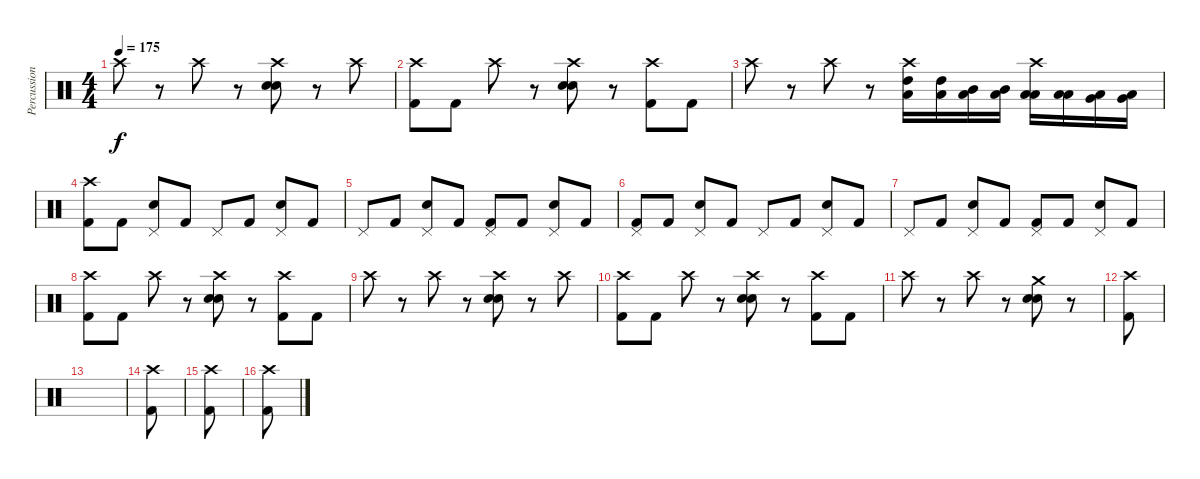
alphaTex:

\track ("Percussion" "Percussion") {instrument percussion}
\staff {score}
\articulation defaults
\ts (4 4)
\tempo 175
\clef neutral
\ks c "Crash high (hit)".8{dy f}
r.8 "Crash high (hit)".8 r.8 ("Crash high (hit)" "Electric Snare (hit)" "Electric Snare (hit)").8 r.8 "Crash high (hit)".8 |
("Crash high (hit)" "Kick (hit) 2").8 "Kick (hit) 2".8 "Crash high (hit)".8 r.8 ("Crash high (hit)" "Electric Snare (hit)" "Electric Snare (hit)").8 r.8 ("Crash high (hit)" "Kick (hit) 2").8 "Kick (hit) 2".8 |
"Crash high (hit)".8 r.8 "Crash high (hit)".8 r.8 ("Crash high (hit)" "Low Floor Tom (hit)" "High Tom (hit)").16 ("Low Floor Tom (hit)" "High Tom (hit)").16 ("Low Floor Tom (hit)" "Mid Tom (hit)").16 ("Low Floor Tom (hit)" "Mid Tom (hit)").16 ("Crash high (hit)" "Low Floor Tom (hit)" "Low Tom (hit)").16 ("Low Floor Tom (hit)" "Low Tom (hit)").16 ("Low Floor Tom (hit)" "Very Low Tom (hit)").16 ("Low Floor Tom (hit)" "Very Low Tom (hit)").16 |
("Crash high (hit)" "Kick (hit) 2").8 "Kick (hit) 2".8 ("Pedal Hi-Hat (hit)" "Electric Snare (hit)").8 "Kick (hit) 2".8 "Pedal Hi-Hat (hit)".8 "Kick (hit) 2".8 ("Pedal Hi-Hat (hit)" "Electric Snare (hit)").8 "Kick (hit) 2".8 |
"Pedal Hi-Hat (hit)".8 "Kick (hit) 2".8 ("Pedal Hi-Hat (hit)" "Electric Snare (hit)").8 "Kick (hit) 2".8 ("Pedal Hi-Hat (hit)" "Kick (hit) 2").8 "Kick (hit) 2".8 ("Pedal Hi-Hat (hit)" "Electric Snare (hit)").8 "Kick (hit) 2".8 |
("Pedal Hi-Hat (hit)" "Kick (hit) 2").8 "Kick (hit) 2".8 ("Pedal Hi-Hat (hit)" "Electric Snare (hit)").8 "Kick (hit) 2".8 "Pedal Hi-Hat (hit)".8 "Kick (hit) 2".8 ("Pedal Hi-Hat (hit)" "Electric Snare (hit)").8 "Kick (hit) 2".8 |
"Pedal Hi-Hat (hit)".8 "Kick (hit) 2".8 ("Pedal Hi-Hat (hit)" "Electric Snare (hit)").8 "Kick (hit) 2".8 ("Pedal Hi-Hat (hit)" "Kick (hit) 2").8 "Kick (hit) 2".8 ("Pedal Hi-Hat (hit)" "Electric Snare (hit)").8 "Kick (hit) 2".8 |
("Crash high (hit)" "Kick (hit) 2").8 "Kick (hit) 2".8 "Crash high (hit)".8 r.8 ("Crash high (hit)" "Electric Snare (hit)" "Electric Snare (hit)").8 r.8 ("Crash high (hit)" "Kick (hit) 2").8 "Kick (hit) 2".8 |
"Crash high (hit)".8 r.8 "Crash high (hit)".8 r.8 ("Crash high (hit)" "Electric Snare (hit)" "Electric Snare (hit)").8 r.8 "Crash high (hit)".8 |
("Crash high (hit)" "Kick (hit) 2").8 "Kick (hit) 2".8 "Crash high (hit)".8 r.8 ("Crash high (hit)" "Electric Snare (hit)" "Electric Snare (hit)").8 r.8 ("Crash high (hit)" "Kick (hit) 2").8 "Kick (hit) 2".8 |
"Crash high (hit)".8 r.8 "Crash high (hit)".8 r.8 ("Crash medium (hit)" "Electric Snare (hit)" "Electric Snare (hit)").8 r.8 |
("Crash high (hit)" "Kick (hit) 2").8 |
|
("Crash high (hit)" "Kick (hit) 2").8 |
("Crash high (hit)" "Kick (hit) 2").8 |
("Crash high (hit)" "Kick (hit) 2").8
